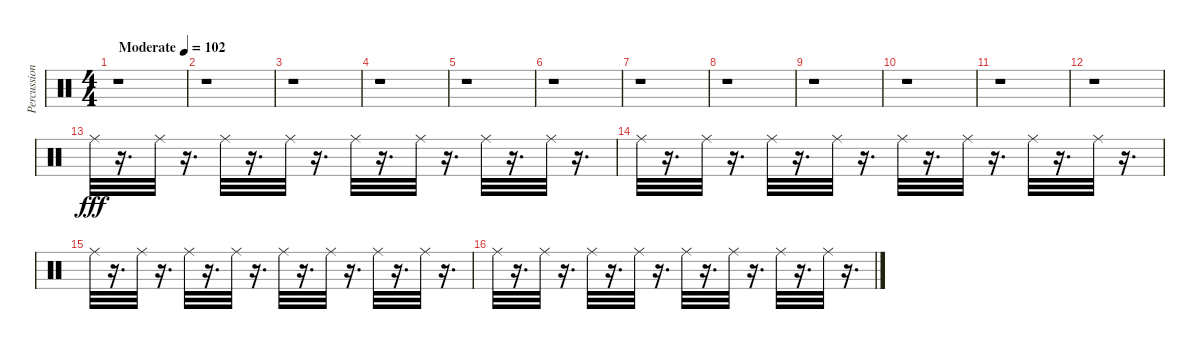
\track ("Percussion" "Percussion") {instrument percussion}
\staff {score}
\articulation defaults
\ts (4 4)
\tempo (102 "Moderate")
\clef neutral
\ks c
r.1{dy fff} |
r.1 |
r.1 |
r.1 |
r.1 |
r.1 |
r.1 |
r.1 |
r.1 |
r.1 |
r.1 |
r.1 |
"Ride (middle)".32 r.16{d} "Ride (middle)".32 r.16{d} "Ride (middle)".32 r.16{d} "Ride (middle)".32 r.16{d} "Ride (middle)".32 r.16{d} "Ride (middle)".32 r.16{d} "Ride (middle)".32 r.16{d} "Ride (middle)".32 r.16{d} |
"Ride (middle)".32 r.16{d} "Ride (middle)".32 r.16{d} "Ride (middle)".32 r.16{d} "Ride (middle)".32 r.16{d} "Ride (middle)".32 r.16{d} "Ride (middle)".32 r.16{d} "Ride (middle)".32 r.16{d} "Ride (middle)".32 r.16{d} |
"Ride (middle)".32 r.16{d} "Ride (middle)".32 r.16{d} "Ride (middle)".32 r.16{d} "Ride (middle)".32 r.16{d} "Ride (middle)".32 r.16{d} "Ride (middle)".32 r.16{d} "Ride (middle)".32 r.16{d} "Ride (middle)".32 r.16{d} |
"Ride (middle)".32 r.16{d} "Ride (middle)".32 r.16{d} "Ride (middle)".32 r.16{d} "Ride (middle)".32 r.16{d} "Ride (middle)".32 r.16{d} "Ride (middle)".32 r.16{d} "Ride (middle)".32 r.16{d} "Ride (middle)".32 r.16{d}
